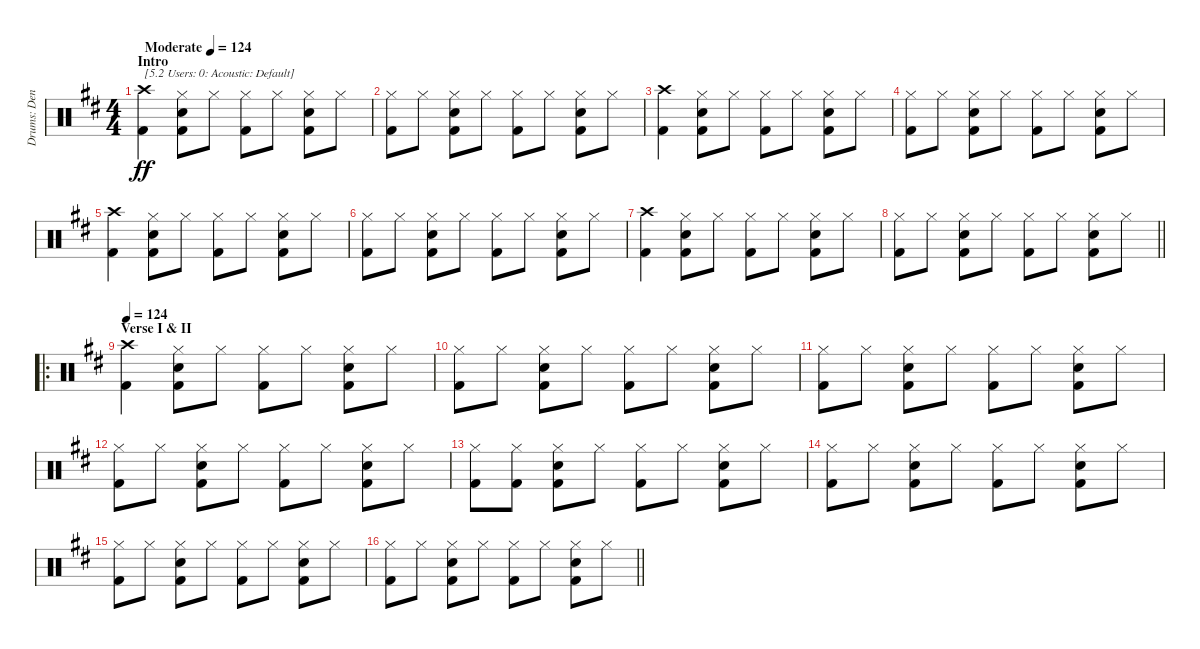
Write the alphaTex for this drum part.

\track ("Drums: Denny" "Drums: Den") {instrument percussion}
\staff {score}
\articulation defaults
\ts (4 4)
\section ("" "Intro")
\tempo (124 "Moderate")
\clef neutral
\ks d
("Crash high (hit)" "Kick (hit) 2").4{txt "[5.2 Users: 0: Acoustic: Default]" dy ff} ("Hi-Hat (closed)" "Snare (hit) 2" "Kick (hit) 2").8 "Hi-Hat (closed)".8 ("Hi-Hat (closed)" "Kick (hit) 2").8 "Hi-Hat (closed)".8 ("Hi-Hat (closed)" "Snare (hit) 2" "Kick (hit) 2").8 "Hi-Hat (closed)".8 |
("Hi-Hat (closed)" "Kick (hit) 2").8 "Hi-Hat (closed)".8 ("Hi-Hat (closed)" "Snare (hit) 2" "Kick (hit) 2").8 "Hi-Hat (closed)".8 ("Hi-Hat (closed)" "Kick (hit) 2").8 "Hi-Hat (closed)".8 ("Hi-Hat (closed)" "Snare (hit) 2" "Kick (hit) 2").8 "Hi-Hat (closed)".8 |
("Crash high (hit)" "Kick (hit) 2").4 ("Hi-Hat (closed)" "Snare (hit) 2" "Kick (hit) 2").8 "Hi-Hat (closed)".8 ("Hi-Hat (closed)" "Kick (hit) 2").8 "Hi-Hat (closed)".8 ("Hi-Hat (closed)" "Snare (hit) 2" "Kick (hit) 2").8 "Hi-Hat (closed)".8 |
("Hi-Hat (closed)" "Kick (hit) 2").8 "Hi-Hat (closed)".8 ("Hi-Hat (closed)" "Snare (hit) 2" "Kick (hit) 2").8 "Hi-Hat (closed)".8 ("Hi-Hat (closed)" "Kick (hit) 2").8 "Hi-Hat (closed)".8 ("Hi-Hat (closed)" "Snare (hit) 2" "Kick (hit) 2").8 "Hi-Hat (closed)".8 |
("Crash high (hit)" "Kick (hit) 2").4 ("Hi-Hat (closed)" "Snare (hit) 2" "Kick (hit) 2").8 "Hi-Hat (closed)".8 ("Hi-Hat (closed)" "Kick (hit) 2").8 "Hi-Hat (closed)".8 ("Hi-Hat (closed)" "Snare (hit) 2" "Kick (hit) 2").8 "Hi-Hat (closed)".8 |
("Hi-Hat (closed)" "Kick (hit) 2").8 "Hi-Hat (closed)".8 ("Hi-Hat (closed)" "Snare (hit) 2" "Kick (hit) 2").8 "Hi-Hat (closed)".8 ("Hi-Hat (closed)" "Kick (hit) 2").8 "Hi-Hat (closed)".8 ("Hi-Hat (closed)" "Snare (hit) 2" "Kick (hit) 2").8 "Hi-Hat (closed)".8 |
("Crash high (hit)" "Kick (hit) 2").4 ("Hi-Hat (closed)" "Snare (hit) 2" "Kick (hit) 2").8 "Hi-Hat (closed)".8 ("Hi-Hat (closed)" "Kick (hit) 2").8 "Hi-Hat (closed)".8 ("Hi-Hat (closed)" "Snare (hit) 2" "Kick (hit) 2").8 "Hi-Hat (closed)".8 |
\barLineRight lightlight
("Hi-Hat (closed)" "Kick (hit) 2").8 "Hi-Hat (closed)".8 ("Hi-Hat (closed)" "Snare (hit) 2" "Kick (hit) 2").8 "Hi-Hat (closed)".8 ("Hi-Hat (closed)" "Kick (hit) 2").8 "Hi-Hat (closed)".8 ("Hi-Hat (closed)" "Snare (hit) 2" "Kick (hit) 2").8 "Hi-Hat (closed)".8 |
\ro
\section ("" "Verse I & II")
\tempo 124
("Crash high (hit)" "Kick (hit) 2").4 ("Hi-Hat (closed)" "Snare (hit) 2" "Kick (hit) 2").8 "Hi-Hat (closed)".8 ("Hi-Hat (closed)" "Kick (hit) 2").8 "Hi-Hat (closed)".8 ("Hi-Hat (closed)" "Snare (hit) 2" "Kick (hit) 2").8 "Hi-Hat (closed)".8 |
("Hi-Hat (closed)" "Kick (hit) 2").8 "Hi-Hat (closed)".8 ("Hi-Hat (closed)" "Snare (hit) 2" "Kick (hit) 2").8 "Hi-Hat (closed)".8 ("Hi-Hat (closed)" "Kick (hit) 2").8 "Hi-Hat (closed)".8 ("Hi-Hat (closed)" "Snare (hit) 2" "Kick (hit) 2").8 "Hi-Hat (closed)".8 |
("Hi-Hat (closed)" "Kick (hit) 2").8 "Hi-Hat (closed)".8 ("Hi-Hat (closed)" "Snare (hit) 2" "Kick (hit) 2").8 "Hi-Hat (closed)".8 ("Hi-Hat (closed)" "Kick (hit) 2").8 "Hi-Hat (closed)".8 ("Hi-Hat (closed)" "Snare (hit) 2" "Kick (hit) 2").8 "Hi-Hat (closed)".8 |
("Hi-Hat (closed)" "Kick (hit) 2").8 "Hi-Hat (closed)".8 ("Hi-Hat (closed)" "Snare (hit) 2" "Kick (hit) 2").8 "Hi-Hat (closed)".8 ("Hi-Hat (closed)" "Kick (hit) 2").8 "Hi-Hat (closed)".8 ("Hi-Hat (closed)" "Snare (hit) 2" "Kick (hit) 2").8 "Hi-Hat (closed)".8 |
("Hi-Hat (closed)" "Kick (hit) 2").8 ("Hi-Hat (closed)" "Kick (hit) 2").8 ("Hi-Hat (closed)" "Snare (hit) 2" "Kick (hit) 2").8 "Hi-Hat (closed)".8 ("Hi-Hat (closed)" "Kick (hit) 2").8 "Hi-Hat (closed)".8 ("Hi-Hat (closed)" "Snare (hit) 2" "Kick (hit) 2").8 "Hi-Hat (closed)".8 |
("Hi-Hat (closed)" "Kick (hit) 2").8 "Hi-Hat (closed)".8 ("Hi-Hat (closed)" "Snare (hit) 2" "Kick (hit) 2").8 "Hi-Hat (closed)".8 ("Hi-Hat (closed)" "Kick (hit) 2").8 "Hi-Hat (closed)".8 ("Hi-Hat (closed)" "Snare (hit) 2" "Kick (hit) 2").8 "Hi-Hat (closed)".8 |
("Hi-Hat (closed)" "Kick (hit) 2").8 "Hi-Hat (closed)".8 ("Hi-Hat (closed)" "Snare (hit) 2" "Kick (hit) 2").8 "Hi-Hat (closed)".8 ("Hi-Hat (closed)" "Kick (hit) 2").8 "Hi-Hat (closed)".8 ("Hi-Hat (closed)" "Snare (hit) 2" "Kick (hit) 2").8 "Hi-Hat (closed)".8 |
\barLineRight lightlight
("Hi-Hat (closed)" "Kick (hit) 2").8 "Hi-Hat (closed)".8 ("Hi-Hat (closed)" "Snare (hit) 2" "Kick (hit) 2").8 "Hi-Hat (closed)".8 ("Hi-Hat (closed)" "Kick (hit) 2").8 "Hi-Hat (closed)".8 ("Hi-Hat (closed)" "Snare (hit) 2" "Kick (hit) 2").8 "Hi-Hat (closed)".8
